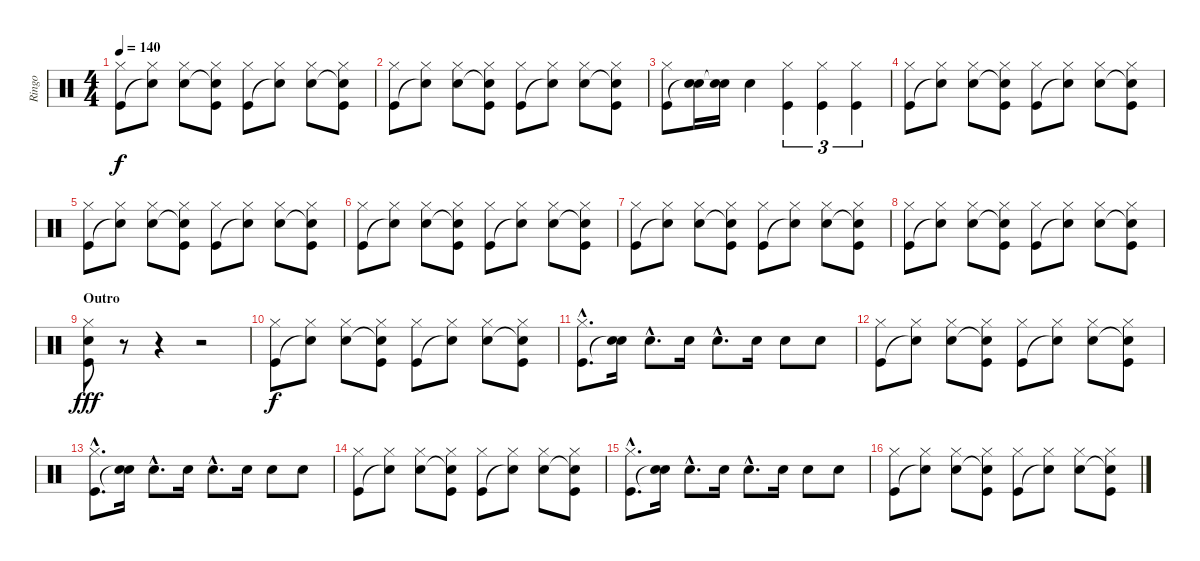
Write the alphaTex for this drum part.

\track ("Ringo" "Ringo") {instrument percussion}
\staff {score}
\articulation defaults
\ts (4 4)
\tempo 140
\clef neutral
\ks c
("Hi-Hat (closed)" "Kick (hit)").8{dy f} ("Hi-Hat (closed)" "Snare (hit)"{t}).8 ("Hi-Hat (closed)" "Snare (hit) 2").8 ("Hi-Hat (closed)" "Snare (hit)"{t} "Kick (hit)").8 ("Hi-Hat (closed)" "Kick (hit)").8 ("Hi-Hat (closed)" "Snare (hit)"{t}).8 ("Hi-Hat (closed)" "Snare (hit) 2").8 ("Hi-Hat (closed)" "Snare (hit)"{t} "Kick (hit)").8 |
("Hi-Hat (closed)" "Kick (hit)").8 ("Hi-Hat (closed)" "Snare (hit)"{t}).8 ("Hi-Hat (closed)" "Snare (hit) 2").8 ("Hi-Hat (closed)" "Snare (hit)"{t} "Kick (hit)").8 ("Hi-Hat (closed)" "Kick (hit)").8 ("Hi-Hat (closed)" "Snare (hit)"{t}).8 ("Hi-Hat (closed)" "Snare (hit) 2").8 ("Hi-Hat (closed)" "Snare (hit)"{t} "Kick (hit)").8 |
("Hi-Hat (closed)" "Kick (hit)").8 ("Snare (hit) 2" "Snare (hit)"{t}).16 ("Snare (hit) 2" "Snare (hit)"{t}).16 "Snare (hit) 2".4 ("Hi-Hat (closed)" "Kick (hit)").4{tu (3 2)} ("Hi-Hat (closed)" "Kick (hit)").4{tu (3 2)} ("Hi-Hat (closed)" "Kick (hit)").4{tu (3 2)} |
("Hi-Hat (closed)" "Kick (hit)").8 ("Hi-Hat (closed)" "Snare (hit)"{t}).8 ("Hi-Hat (closed)" "Snare (hit) 2").8 ("Hi-Hat (closed)" "Snare (hit)"{t} "Kick (hit)").8 ("Hi-Hat (closed)" "Kick (hit)").8 ("Hi-Hat (closed)" "Snare (hit)"{t}).8 ("Hi-Hat (closed)" "Snare (hit) 2").8 ("Hi-Hat (closed)" "Snare (hit)"{t} "Kick (hit)").8 |
("Hi-Hat (closed)" "Kick (hit)").8 ("Hi-Hat (closed)" "Snare (hit)"{t}).8 ("Hi-Hat (closed)" "Snare (hit) 2").8 ("Hi-Hat (closed)" "Snare (hit)"{t} "Kick (hit)").8 ("Hi-Hat (closed)" "Kick (hit)").8 ("Hi-Hat (closed)" "Snare (hit)"{t}).8 ("Hi-Hat (closed)" "Snare (hit) 2").8 ("Hi-Hat (closed)" "Snare (hit)"{t} "Kick (hit)").8 |
("Hi-Hat (closed)" "Kick (hit)").8 ("Hi-Hat (closed)" "Snare (hit)"{t}).8 ("Hi-Hat (closed)" "Snare (hit) 2").8 ("Hi-Hat (closed)" "Snare (hit)"{t} "Kick (hit)").8 ("Hi-Hat (closed)" "Kick (hit)").8 ("Hi-Hat (closed)" "Snare (hit)"{t}).8 ("Hi-Hat (closed)" "Snare (hit) 2").8 ("Hi-Hat (closed)" "Snare (hit)"{t} "Kick (hit)").8 |
("Hi-Hat (closed)" "Kick (hit)").8 ("Hi-Hat (closed)" "Snare (hit)"{t}).8 ("Hi-Hat (closed)" "Snare (hit) 2").8 ("Hi-Hat (closed)" "Snare (hit)"{t} "Kick (hit)").8 ("Hi-Hat (closed)" "Kick (hit)").8 ("Hi-Hat (closed)" "Snare (hit)"{t}).8 ("Hi-Hat (closed)" "Snare (hit) 2").8 ("Hi-Hat (closed)" "Snare (hit)"{t} "Kick (hit)").8 |
("Hi-Hat (closed)" "Kick (hit)").8 ("Hi-Hat (closed)" "Snare (hit)"{t}).8 ("Hi-Hat (closed)" "Snare (hit) 2").8 ("Hi-Hat (closed)" "Snare (hit)"{t} "Kick (hit)").8 ("Hi-Hat (closed)" "Kick (hit)").8 ("Hi-Hat (closed)" "Snare (hit)"{t}).8 ("Hi-Hat (closed)" "Snare (hit) 2").8 ("Hi-Hat (closed)" "Snare (hit)"{t} "Kick (hit)").8 |
\section ("" "Outro")
("Hi-Hat (closed)" "Snare (hit) 2" "Kick (hit)").8{dy fff} r.8 r.4 r.2 |
("Hi-Hat (closed)" "Kick (hit)").8{dy f} ("Hi-Hat (closed)" "Snare (hit)"{t}).8 ("Hi-Hat (closed)" "Snare (hit) 2").8 ("Hi-Hat (closed)" "Snare (hit)"{t} "Kick (hit)").8 ("Hi-Hat (closed)" "Kick (hit)").8 ("Hi-Hat (closed)" "Snare (hit)"{t}).8 ("Hi-Hat (closed)" "Snare (hit) 2").8 ("Hi-Hat (closed)" "Snare (hit)"{t} "Kick (hit)").8 |
("Hi-Hat (closed)"{hac} "Kick (hit)"{hac}).8{d} ("Snare (hit) 2" "Snare (hit)"{t}).16 "Snare (hit) 2"{hac}.8{d} "Snare (hit) 2".16 "Snare (hit) 2"{hac}.8{d} "Snare (hit) 2".16 "Snare (hit) 2".8 "Snare (hit) 2".8 |
("Hi-Hat (closed)" "Kick (hit)").8 ("Hi-Hat (closed)" "Snare (hit)"{t}).8 ("Hi-Hat (closed)" "Snare (hit) 2").8 ("Hi-Hat (closed)" "Snare (hit)"{t} "Kick (hit)").8 ("Hi-Hat (closed)" "Kick (hit)").8 ("Hi-Hat (closed)" "Snare (hit)"{t}).8 ("Hi-Hat (closed)" "Snare (hit) 2").8 ("Hi-Hat (closed)" "Snare (hit)"{t} "Kick (hit)").8 |
("Hi-Hat (closed)"{hac} "Kick (hit)"{hac}).8{d} ("Snare (hit) 2" "Snare (hit)"{t}).16 "Snare (hit) 2"{hac}.8{d} "Snare (hit) 2".16 "Snare (hit) 2"{hac}.8{d} "Snare (hit) 2".16 "Snare (hit) 2".8 "Snare (hit) 2".8 |
("Hi-Hat (closed)" "Kick (hit)").8 ("Hi-Hat (closed)" "Snare (hit)"{t}).8 ("Hi-Hat (closed)" "Snare (hit) 2").8 ("Hi-Hat (closed)" "Snare (hit)"{t} "Kick (hit)").8 ("Hi-Hat (closed)" "Kick (hit)").8 ("Hi-Hat (closed)" "Snare (hit)"{t}).8 ("Hi-Hat (closed)" "Snare (hit) 2").8 ("Hi-Hat (closed)" "Snare (hit)"{t} "Kick (hit)").8 |
("Hi-Hat (closed)"{hac} "Kick (hit)"{hac}).8{d volume 10} ("Snare (hit) 2" "Snare (hit)"{t}).16 "Snare (hit) 2"{hac}.8{d} "Snare (hit) 2".16 "Snare (hit) 2"{hac}.8{d} "Snare (hit) 2".16 "Snare (hit) 2".8 "Snare (hit) 2".8 |
("Hi-Hat (closed)" "Kick (hit)").8 ("Hi-Hat (closed)" "Snare (hit)"{t}).8 ("Hi-Hat (closed)" "Snare (hit) 2").8 ("Hi-Hat (closed)" "Snare (hit)"{t} "Kick (hit)").8 ("Hi-Hat (closed)" "Kick (hit)").8 ("Hi-Hat (closed)" "Snare (hit)"{t}).8 ("Hi-Hat (closed)" "Snare (hit) 2").8 ("Hi-Hat (closed)" "Snare (hit)"{t} "Kick (hit)").8
